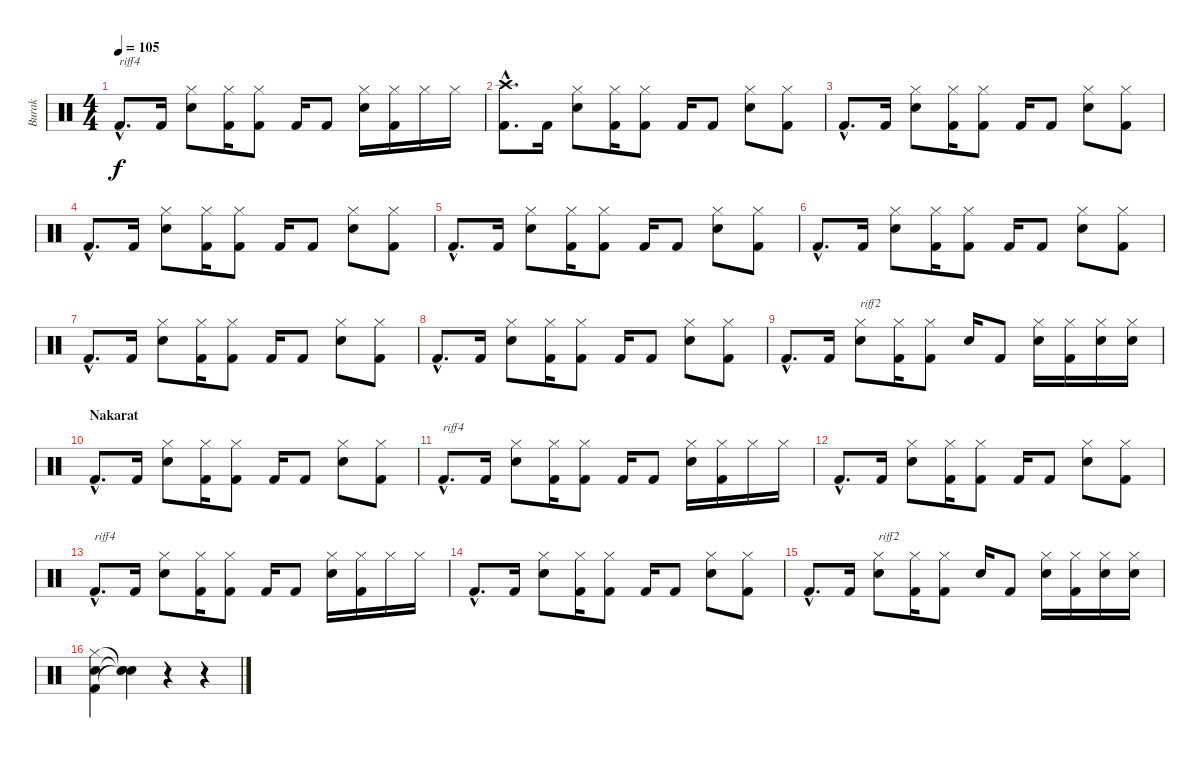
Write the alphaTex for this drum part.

\track ("Burak" "Burak") {instrument percussion}
\staff {score}
\articulation defaults
\ts (4 4)
\tempo 105
\clef neutral
\ks c "Kick (hit) 2"{hac}.8{d txt "riff4" dy f} "Kick (hit) 2".16
("Electric Snare (hit)" "Hi-Hat (closed)").8 ("Kick (hit) 2" "Hi-Hat (closed)").16 ("Kick (hit) 2" "Hi-Hat (closed)").8 "Kick (hit) 2".16 "Kick (hit) 2".8 ("Electric Snare (hit)" "Hi-Hat (closed)").16 ("Kick (hit) 2" "Hi-Hat (closed)").16 "Hi-Hat (closed)".16 "Hi-Hat (closed)".16 |
("Kick (hit) 2"{hac} "Crash high (hit)").8{d} "Kick (hit) 2".16 ("Electric Snare (hit)" "Hi-Hat (closed)").8 ("Kick (hit) 2" "Hi-Hat (closed)").16 ("Kick (hit) 2" "Hi-Hat (closed)").8 "Kick (hit) 2".16 "Kick (hit) 2".8 ("Electric Snare (hit)" "Hi-Hat (closed)").8 ("Kick (hit) 2" "Hi-Hat (closed)").8 |
"Kick (hit) 2"{hac}.8{d} "Kick (hit) 2".16 ("Electric Snare (hit)" "Hi-Hat (closed)").8 ("Kick (hit) 2" "Hi-Hat (closed)").16 ("Kick (hit) 2" "Hi-Hat (closed)").8 "Kick (hit) 2".16 "Kick (hit) 2".8 ("Electric Snare (hit)" "Hi-Hat (closed)").8 ("Kick (hit) 2" "Hi-Hat (closed)").8 |
"Kick (hit) 2"{hac}.8{d} "Kick (hit) 2".16 ("Electric Snare (hit)" "Hi-Hat (closed)").8 ("Kick (hit) 2" "Hi-Hat (closed)").16 ("Kick (hit) 2" "Hi-Hat (closed)").8 "Kick (hit) 2".16 "Kick (hit) 2".8 ("Electric Snare (hit)" "Hi-Hat (closed)").8 ("Kick (hit) 2" "Hi-Hat (closed)").8 |
"Kick (hit) 2"{hac}.8{d} "Kick (hit) 2".16 ("Electric Snare (hit)" "Hi-Hat (closed)").8 ("Kick (hit) 2" "Hi-Hat (closed)").16 ("Kick (hit) 2" "Hi-Hat (closed)").8 "Kick (hit) 2".16 "Kick (hit) 2".8 ("Electric Snare (hit)" "Hi-Hat (closed)").8 ("Kick (hit) 2" "Hi-Hat (closed)").8 |
"Kick (hit) 2"{hac}.8{d} "Kick (hit) 2".16 ("Electric Snare (hit)" "Hi-Hat (closed)").8 ("Kick (hit) 2" "Hi-Hat (closed)").16 ("Kick (hit) 2" "Hi-Hat (closed)").8 "Kick (hit) 2".16 "Kick (hit) 2".8 ("Electric Snare (hit)" "Hi-Hat (closed)").8 ("Kick (hit) 2" "Hi-Hat (closed)").8 |
"Kick (hit) 2"{hac}.8{d} "Kick (hit) 2".16 ("Electric Snare (hit)" "Hi-Hat (closed)").8 ("Kick (hit) 2" "Hi-Hat (closed)").16 ("Kick (hit) 2" "Hi-Hat (closed)").8 "Kick (hit) 2".16 "Kick (hit) 2".8 ("Electric Snare (hit)" "Hi-Hat (closed)").8 ("Kick (hit) 2" "Hi-Hat (closed)").8 |
"Kick (hit) 2"{hac}.8{d} "Kick (hit) 2".16 ("Electric Snare (hit)" "Hi-Hat (closed)").8 ("Kick (hit) 2" "Hi-Hat (closed)").16 ("Kick (hit) 2" "Hi-Hat (closed)").8 "Kick (hit) 2".16 "Kick (hit) 2".8 ("Electric Snare (hit)" "Hi-Hat (closed)").8 ("Kick (hit) 2" "Hi-Hat (closed)").8 |
"Kick (hit) 2"{hac}.8{d} "Kick (hit) 2".16 ("Electric Snare (hit)" "Hi-Hat (closed)").8{txt "riff2"} ("Kick (hit) 2" "Hi-Hat (closed)").16 ("Kick (hit) 2" "Hi-Hat (closed)").8 "Electric Snare (hit)".16 "Kick (hit) 2".8 ("Electric Snare (hit)" "Hi-Hat (closed)").16 ("Kick (hit) 2" "Hi-Hat (closed)").16 ("Electric Snare (hit)" "Hi-Hat (closed)").16 ("Electric Snare (hit)" "Hi-Hat (closed)").16 |
\section ("" "Nakarat")
"Kick (hit) 2"{hac}.8{d} "Kick (hit) 2".16 ("Electric Snare (hit)" "Hi-Hat (closed)").8 ("Kick (hit) 2" "Hi-Hat (closed)").16 ("Kick (hit) 2" "Hi-Hat (closed)").8 "Kick (hit) 2".16 "Kick (hit) 2".8 ("Electric Snare (hit)" "Hi-Hat (closed)").8 ("Kick (hit) 2" "Hi-Hat (closed)").8 |
"Kick (hit) 2"{hac}.8{d txt "riff4"} "Kick (hit) 2".16 ("Electric Snare (hit)" "Hi-Hat (closed)").8 ("Kick (hit) 2" "Hi-Hat (closed)").16 ("Kick (hit) 2" "Hi-Hat (closed)").8 "Kick (hit) 2".16 "Kick (hit) 2".8 ("Electric Snare (hit)" "Hi-Hat (closed)").16 ("Kick (hit) 2" "Hi-Hat (closed)").16 "Hi-Hat (closed)".16 "Hi-Hat (closed)".16 |
"Kick (hit) 2"{hac}.8{d} "Kick (hit) 2".16 ("Electric Snare (hit)" "Hi-Hat (closed)").8 ("Kick (hit) 2" "Hi-Hat (closed)").16 ("Kick (hit) 2" "Hi-Hat (closed)").8 "Kick (hit) 2".16 "Kick (hit) 2".8 ("Electric Snare (hit)" "Hi-Hat (closed)").8 ("Kick (hit) 2" "Hi-Hat (closed)").8 |
"Kick (hit) 2"{hac}.8{d txt "riff4"} "Kick (hit) 2".16 ("Electric Snare (hit)" "Hi-Hat (closed)").8 ("Kick (hit) 2" "Hi-Hat (closed)").16 ("Kick (hit) 2" "Hi-Hat (closed)").8 "Kick (hit) 2".16 "Kick (hit) 2".8 ("Electric Snare (hit)" "Hi-Hat (closed)").16 ("Kick (hit) 2" "Hi-Hat (closed)").16 "Hi-Hat (closed)".16 "Hi-Hat (closed)".16 |
"Kick (hit) 2"{hac}.8{d} "Kick (hit) 2".16 ("Electric Snare (hit)" "Hi-Hat (closed)").8 ("Kick (hit) 2" "Hi-Hat (closed)").16 ("Kick (hit) 2" "Hi-Hat (closed)").8 "Kick (hit) 2".16 "Kick (hit) 2".8 ("Electric Snare (hit)" "Hi-Hat (closed)").8 ("Kick (hit) 2" "Hi-Hat (closed)").8 |
"Kick (hit) 2"{hac}.8{d} "Kick (hit) 2".16 ("Electric Snare (hit)" "Hi-Hat (closed)").8{txt "riff2"} ("Kick (hit) 2" "Hi-Hat (closed)").16 ("Kick (hit) 2" "Hi-Hat (closed)").8 "Electric Snare (hit)".16 "Kick (hit) 2".8 ("Electric Snare (hit)" "Hi-Hat (closed)").16 ("Kick (hit) 2" "Hi-Hat (closed)").16 ("Electric Snare (hit)" "Hi-Hat (closed)").16 ("Electric Snare (hit)" "Hi-Hat (closed)").16 |
("Electric Snare (hit)" "Hi-Hat (closed)" "Kick (hit) 2").4 ("Snare (hit)"{t} "Snare (hit)"{t} "Snare (hit)"{t}).4 r.4 r.4
